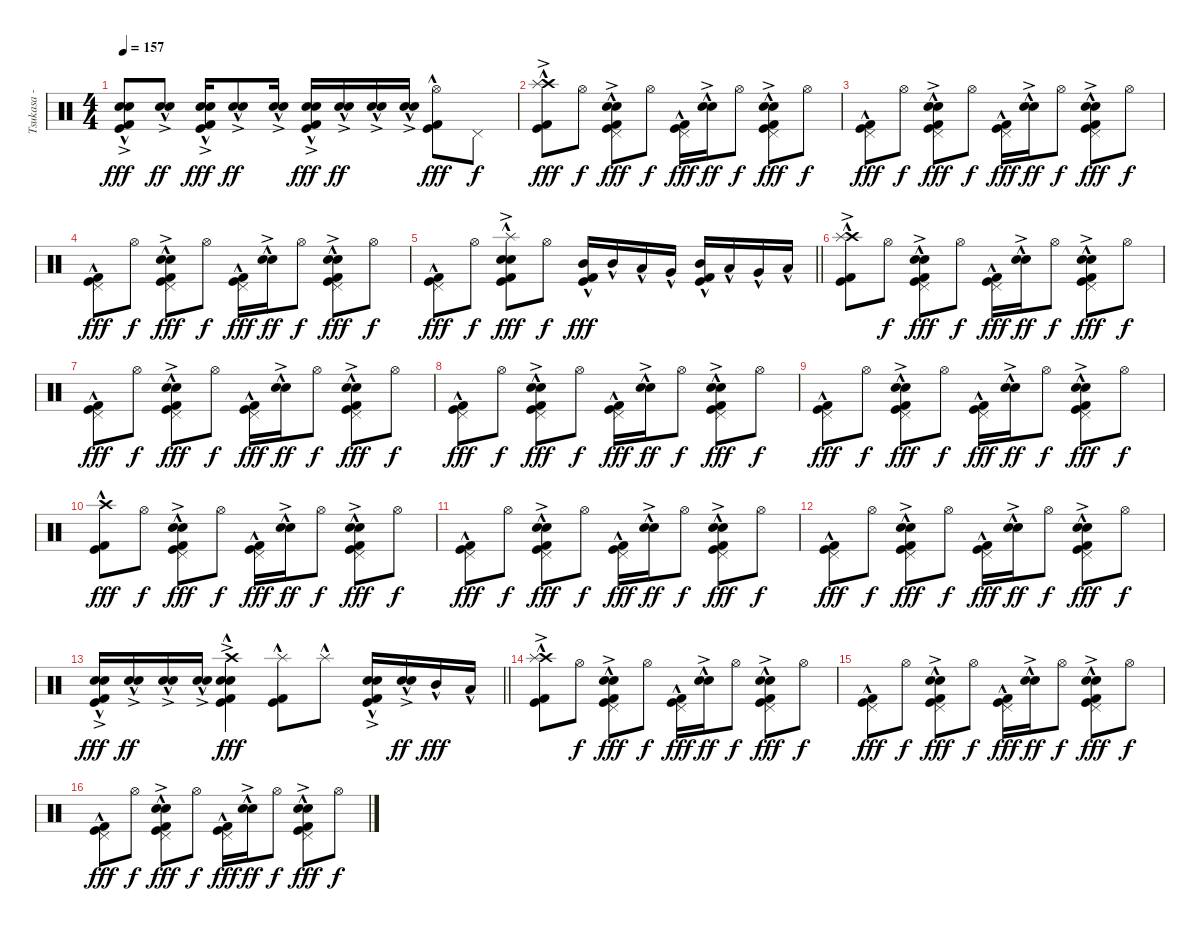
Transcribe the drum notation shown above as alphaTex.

\track ("Tsukasa - Drums" "Tsukasa - ") {instrument percussion}
\staff {score}
\articulation defaults
\ts (4 4)
\tempo 157
\clef neutral
\ks c
("Electric Snare (hit)"{hac} "Snare (hit) 2"{ac} "Kick (hit) 2"{hac} "Kick (hit)"{hac}).8{dy fff} ("Electric Snare (hit)"{hac} "Snare (hit) 2"{ac}).8{dy ff} ("Electric Snare (hit)"{hac} "Snare (hit) 2"{ac} "Kick (hit) 2"{hac} "Kick (hit)"{hac}).16{dy fff} ("Electric Snare (hit)"{hac} "Snare (hit) 2"{ac}).8{dy ff} ("Electric Snare (hit)"{hac} "Snare (hit) 2"{ac}).16 ("Electric Snare (hit)"{hac} "Snare (hit) 2"{ac} "Kick (hit) 2"{hac} "Kick (hit)"{hac}).16{dy fff} ("Electric Snare (hit)"{hac} "Snare (hit) 2"{ac}).16{dy ff} ("Electric Snare (hit)"{hac} "Snare (hit) 2"{ac}).16 ("Electric Snare (hit)"{hac} "Snare (hit) 2"{ac}).16 ("Hi-Hat (open)"{hac} "Kick (hit) 2"{hac} "Kick (hit)"{hac}).8{dy fff} "Pedal Hi-Hat (hit)".8{dy f} |
("Crash high (hit)"{hac} "Splash (hit)"{ac} "Kick (hit) 2"{hac} "Kick (hit)"{hac}).8{dy fff} "Hi-Hat (open)".8{dy f} ("Pedal Hi-Hat (hit)" "Electric Snare (hit)"{hac} "Snare (hit) 2"{ac} "Kick (hit) 2"{hac} "Kick (hit)"{hac}).8{dy fff} "Hi-Hat (open)".8{dy f} ("Pedal Hi-Hat (hit)" "Kick (hit) 2"{hac} "Kick (hit)"{hac}).16{dy fff} ("Electric Snare (hit)"{hac} "Snare (hit) 2"{ac}).16{dy ff} "Hi-Hat (open)".8{dy f} ("Pedal Hi-Hat (hit)" "Electric Snare (hit)"{hac} "Snare (hit) 2"{ac} "Kick (hit) 2"{hac} "Kick (hit)"{hac}).8{dy fff} "Hi-Hat (open)".8{dy f} |
("Pedal Hi-Hat (hit)" "Kick (hit) 2"{hac} "Kick (hit)"{hac}).8{dy fff} "Hi-Hat (open)".8{dy f} ("Pedal Hi-Hat (hit)" "Electric Snare (hit)"{hac} "Snare (hit) 2"{ac} "Kick (hit) 2"{hac} "Kick (hit)"{hac}).8{dy fff} "Hi-Hat (open)".8{dy f} ("Pedal Hi-Hat (hit)" "Kick (hit) 2"{hac} "Kick (hit)"{hac}).16{dy fff} ("Electric Snare (hit)"{hac} "Snare (hit) 2"{ac}).16{dy ff} "Hi-Hat (open)".8{dy f} ("Pedal Hi-Hat (hit)" "Electric Snare (hit)"{hac} "Snare (hit) 2"{ac} "Kick (hit) 2"{hac} "Kick (hit)"{hac}).8{dy fff} "Hi-Hat (open)".8{dy f} |
("Pedal Hi-Hat (hit)" "Kick (hit) 2"{hac} "Kick (hit)"{hac}).8{dy fff} "Hi-Hat (open)".8{dy f} ("Pedal Hi-Hat (hit)" "Electric Snare (hit)"{hac} "Snare (hit) 2"{ac} "Kick (hit) 2"{hac} "Kick (hit)"{hac}).8{dy fff} "Hi-Hat (open)".8{dy f} ("Pedal Hi-Hat (hit)" "Kick (hit) 2"{hac} "Kick (hit)"{hac}).16{dy fff} ("Electric Snare (hit)"{hac} "Snare (hit) 2"{ac}).16{dy ff} "Hi-Hat (open)".8{dy f} ("Pedal Hi-Hat (hit)" "Electric Snare (hit)"{hac} "Snare (hit) 2"{ac} "Kick (hit) 2"{hac} "Kick (hit)"{hac}).8{dy fff} "Hi-Hat (open)".8{dy f} |
\barLineRight lightlight
("Pedal Hi-Hat (hit)" "Kick (hit) 2"{hac} "Kick (hit)"{hac}).8{dy fff} "Hi-Hat (open)".8{dy f} ("Splash (hit)"{hac} "Electric Snare (hit)"{hac} "Snare (hit) 2"{ac} "Kick (hit) 2"{hac} "Kick (hit)"{hac}).8{dy fff} "Hi-Hat (open)".8{dy f} ("Mid Tom (hit)"{hac} "Kick (hit) 2"{hac} "Kick (hit)"{hac}).16{dy fff} "Mid Tom (hit)"{hac}.16 "Low Tom (hit)"{hac}.16 "Very Low Tom (hit)"{hac}.16 ("Mid Tom (hit)"{hac} "Kick (hit) 2"{hac} "Kick (hit)"{hac}).16 "Low Tom (hit)"{hac}.16 "Very Low Tom (hit)"{hac}.16 "Low Floor Tom (hit)"{hac}.16 |
\section ("" "")
("Crash high (hit)"{hac} "Splash (hit)"{ac} "Kick (hit) 2"{hac} "Kick (hit)"{hac}).8 "Hi-Hat (open)".8{dy f} ("Pedal Hi-Hat (hit)" "Electric Snare (hit)"{hac} "Snare (hit) 2"{ac} "Kick (hit) 2"{hac} "Kick (hit)"{hac}).8{dy fff} "Hi-Hat (open)".8{dy f} ("Pedal Hi-Hat (hit)" "Kick (hit) 2"{hac} "Kick (hit)"{hac}).16{dy fff} ("Electric Snare (hit)"{hac} "Snare (hit) 2"{ac}).16{dy ff} "Hi-Hat (open)".8{dy f} ("Pedal Hi-Hat (hit)" "Electric Snare (hit)"{hac} "Snare (hit) 2"{ac} "Kick (hit) 2"{hac} "Kick (hit)"{hac}).8{dy fff} "Hi-Hat (open)".8{dy f} |
("Pedal Hi-Hat (hit)" "Kick (hit) 2"{hac} "Kick (hit)"{hac}).8{dy fff} "Hi-Hat (open)".8{dy f} ("Pedal Hi-Hat (hit)" "Electric Snare (hit)"{hac} "Snare (hit) 2"{ac} "Kick (hit) 2"{hac} "Kick (hit)"{hac}).8{dy fff} "Hi-Hat (open)".8{dy f} ("Pedal Hi-Hat (hit)" "Kick (hit) 2"{hac} "Kick (hit)"{hac}).16{dy fff} ("Electric Snare (hit)"{hac} "Snare (hit) 2"{ac}).16{dy ff} "Hi-Hat (open)".8{dy f} ("Pedal Hi-Hat (hit)" "Electric Snare (hit)"{hac} "Snare (hit) 2"{ac} "Kick (hit) 2"{hac} "Kick (hit)"{hac}).8{dy fff} "Hi-Hat (open)".8{dy f} |
("Pedal Hi-Hat (hit)" "Kick (hit) 2"{hac} "Kick (hit)"{hac}).8{dy fff} "Hi-Hat (open)".8{dy f} ("Pedal Hi-Hat (hit)" "Electric Snare (hit)"{hac} "Snare (hit) 2"{ac} "Kick (hit) 2"{hac} "Kick (hit)"{hac}).8{dy fff} "Hi-Hat (open)".8{dy f} ("Pedal Hi-Hat (hit)" "Kick (hit) 2"{hac} "Kick (hit)"{hac}).16{dy fff} ("Electric Snare (hit)"{hac} "Snare (hit) 2"{ac}).16{dy ff} "Hi-Hat (open)".8{dy f} ("Pedal Hi-Hat (hit)" "Electric Snare (hit)"{hac} "Snare (hit) 2"{ac} "Kick (hit) 2"{hac} "Kick (hit)"{hac}).8{dy fff} "Hi-Hat (open)".8{dy f} |
("Pedal Hi-Hat (hit)" "Kick (hit) 2"{hac} "Kick (hit)"{hac}).8{dy fff} "Hi-Hat (open)".8{dy f} ("Pedal Hi-Hat (hit)" "Electric Snare (hit)"{hac} "Snare (hit) 2"{ac} "Kick (hit) 2"{hac} "Kick (hit)"{hac}).8{dy fff} "Hi-Hat (open)".8{dy f} ("Pedal Hi-Hat (hit)" "Kick (hit) 2"{hac} "Kick (hit)"{hac}).16{dy fff} ("Electric Snare (hit)"{hac} "Snare (hit) 2"{ac}).16{dy ff} "Hi-Hat (open)".8{dy f} ("Pedal Hi-Hat (hit)" "Electric Snare (hit)"{hac} "Snare (hit) 2"{ac} "Kick (hit) 2"{hac} "Kick (hit)"{hac}).8{dy fff} "Hi-Hat (open)".8{dy f} |
("Crash high (hit)"{hac} "Kick (hit) 2"{hac} "Kick (hit)"{hac}).8{dy fff} "Hi-Hat (open)".8{dy f} ("Pedal Hi-Hat (hit)" "Electric Snare (hit)"{hac} "Snare (hit) 2"{ac} "Kick (hit) 2"{hac} "Kick (hit)"{hac}).8{dy fff} "Hi-Hat (open)".8{dy f} ("Pedal Hi-Hat (hit)" "Kick (hit) 2"{hac} "Kick (hit)"{hac}).16{dy fff} ("Electric Snare (hit)"{hac} "Snare (hit) 2"{ac}).16{dy ff} "Hi-Hat (open)".8{dy f} ("Pedal Hi-Hat (hit)" "Electric Snare (hit)"{hac} "Snare (hit) 2"{ac} "Kick (hit) 2"{hac} "Kick (hit)"{hac}).8{dy fff} "Hi-Hat (open)".8{dy f} |
("Pedal Hi-Hat (hit)" "Kick (hit) 2"{hac} "Kick (hit)"{hac}).8{dy fff} "Hi-Hat (open)".8{dy f} ("Pedal Hi-Hat (hit)" "Electric Snare (hit)"{hac} "Snare (hit) 2"{ac} "Kick (hit) 2"{hac} "Kick (hit)"{hac}).8{dy fff} "Hi-Hat (open)".8{dy f} ("Pedal Hi-Hat (hit)" "Kick (hit) 2"{hac} "Kick (hit)"{hac}).16{dy fff} ("Electric Snare (hit)"{hac} "Snare (hit) 2"{ac}).16{dy ff} "Hi-Hat (open)".8{dy f} ("Pedal Hi-Hat (hit)" "Electric Snare (hit)"{hac} "Snare (hit) 2"{ac} "Kick (hit) 2"{hac} "Kick (hit)"{hac}).8{dy fff} "Hi-Hat (open)".8{dy f} |
("Pedal Hi-Hat (hit)" "Kick (hit) 2"{hac} "Kick (hit)"{hac}).8{dy fff} "Hi-Hat (open)".8{dy f} ("Pedal Hi-Hat (hit)" "Electric Snare (hit)"{hac} "Snare (hit) 2"{ac} "Kick (hit) 2"{hac} "Kick (hit)"{hac}).8{dy fff} "Hi-Hat (open)".8{dy f} ("Pedal Hi-Hat (hit)" "Kick (hit) 2"{hac} "Kick (hit)"{hac}).16{dy fff} ("Electric Snare (hit)"{hac} "Snare (hit) 2"{ac}).16{dy ff} "Hi-Hat (open)".8{dy f} ("Pedal Hi-Hat (hit)" "Electric Snare (hit)"{hac} "Snare (hit) 2"{ac} "Kick (hit) 2"{hac} "Kick (hit)"{hac}).8{dy fff} "Hi-Hat (open)".8{dy f} |
\barLineRight lightlight
("Electric Snare (hit)"{hac} "Snare (hit) 2"{ac} "Kick (hit) 2"{hac} "Kick (hit)"{hac}).16{dy fff} ("Electric Snare (hit)"{hac} "Snare (hit) 2"{ac}).16{dy ff} ("Electric Snare (hit)"{hac} "Snare (hit) 2"{ac}).16 ("Electric Snare (hit)"{hac} "Snare (hit) 2"{ac}).16 ("Crash high (hit)"{ac} "Electric Snare (hit)"{hac} "Snare (hit) 2"{ac} "Kick (hit) 2"{hac} "Kick (hit)"{hac}).4{dy fff} ("Splash (hit)"{hac} "Kick (hit) 2"{hac} "Kick (hit)"{hac}).8 "Splash (hit)"{hac}.8 ("Electric Snare (hit)"{hac} "Snare (hit) 2"{ac} "Kick (hit) 2"{hac} "Kick (hit)"{hac}).16 ("Electric Snare (hit)"{hac} "Snare (hit) 2"{ac}).16{dy ff} "Mid Tom (hit)"{hac}.16{dy fff} "Low Tom (hit)"{hac}.16 |
\section ("" "")
("Crash high (hit)"{hac} "Splash (hit)"{ac} "Kick (hit) 2"{hac} "Kick (hit)"{hac}).8 "Hi-Hat (open)".8{dy f} ("Pedal Hi-Hat (hit)" "Electric Snare (hit)"{hac} "Snare (hit) 2"{ac} "Kick (hit) 2"{hac} "Kick (hit)"{hac}).8{dy fff} "Hi-Hat (open)".8{dy f} ("Pedal Hi-Hat (hit)" "Kick (hit) 2"{hac} "Kick (hit)"{hac}).16{dy fff} ("Electric Snare (hit)"{hac} "Snare (hit) 2"{ac}).16{dy ff} "Hi-Hat (open)".8{dy f} ("Pedal Hi-Hat (hit)" "Electric Snare (hit)"{hac} "Snare (hit) 2"{ac} "Kick (hit) 2"{hac} "Kick (hit)"{hac}).8{dy fff} "Hi-Hat (open)".8{dy f} |
("Pedal Hi-Hat (hit)" "Kick (hit) 2"{hac} "Kick (hit)"{hac}).8{dy fff} "Hi-Hat (open)".8{dy f} ("Pedal Hi-Hat (hit)" "Electric Snare (hit)"{hac} "Snare (hit) 2"{ac} "Kick (hit) 2"{hac} "Kick (hit)"{hac}).8{dy fff} "Hi-Hat (open)".8{dy f} ("Pedal Hi-Hat (hit)" "Kick (hit) 2"{hac} "Kick (hit)"{hac}).16{dy fff} ("Electric Snare (hit)"{hac} "Snare (hit) 2"{ac}).16{dy ff} "Hi-Hat (open)".8{dy f} ("Pedal Hi-Hat (hit)" "Electric Snare (hit)"{hac} "Snare (hit) 2"{ac} "Kick (hit) 2"{hac} "Kick (hit)"{hac}).8{dy fff} "Hi-Hat (open)".8{dy f} |
("Pedal Hi-Hat (hit)" "Kick (hit) 2"{hac} "Kick (hit)"{hac}).8{dy fff} "Hi-Hat (open)".8{dy f} ("Pedal Hi-Hat (hit)" "Electric Snare (hit)"{hac} "Snare (hit) 2"{ac} "Kick (hit) 2"{hac} "Kick (hit)"{hac}).8{dy fff} "Hi-Hat (open)".8{dy f} ("Pedal Hi-Hat (hit)" "Kick (hit) 2"{hac} "Kick (hit)"{hac}).16{dy fff} ("Electric Snare (hit)"{hac} "Snare (hit) 2"{ac}).16{dy ff} "Hi-Hat (open)".8{dy f} ("Pedal Hi-Hat (hit)" "Electric Snare (hit)"{hac} "Snare (hit) 2"{ac} "Kick (hit) 2"{hac} "Kick (hit)"{hac}).8{dy fff} "Hi-Hat (open)".8{dy f}
